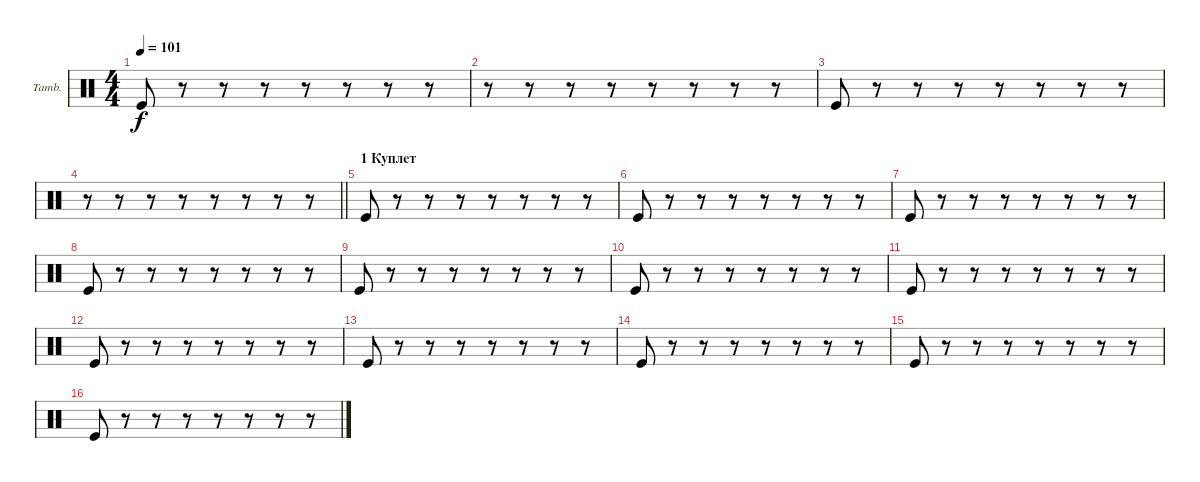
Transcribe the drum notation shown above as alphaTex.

\bracketExtendMode groupsimilarinstruments
\firstSystemTrackNameOrientation horizontal
\otherSystemsTrackNameOrientation horizontal
\track ("Tambourine" "Tamb.") {instrument percussion}
\staff {score}
\articulation defaults
\ts (4 4)
\tempo 101
\clef neutral
\ks c "Kick (hit)".8{dy f}
r.8 r.8 r.8 r.8 r.8 r.8 r.8 |
r.8 r.8 r.8 r.8 r.8 r.8 r.8 r.8 |
"Kick (hit)".8 r.8 r.8 r.8 r.8 r.8 r.8 r.8 |
\barLineRight lightlight
r.8 r.8 r.8 r.8 r.8 r.8 r.8 r.8 |
\section ("" "1 Куплет")
"Kick (hit)".8 r.8 r.8 r.8 r.8 r.8 r.8 r.8 |
"Kick (hit)".8 r.8 r.8 r.8 r.8 r.8 r.8 r.8 |
"Kick (hit)".8 r.8 r.8 r.8 r.8 r.8 r.8 r.8 |
"Kick (hit)".8 r.8 r.8 r.8 r.8 r.8 r.8 r.8 |
"Kick (hit)".8 r.8 r.8 r.8 r.8 r.8 r.8 r.8 |
"Kick (hit)".8 r.8 r.8 r.8 r.8 r.8 r.8 r.8 |
"Kick (hit)".8 r.8 r.8 r.8 r.8 r.8 r.8 r.8 |
"Kick (hit)".8 r.8 r.8 r.8 r.8 r.8 r.8 r.8 |
"Kick (hit)".8 r.8 r.8 r.8 r.8 r.8 r.8 r.8 |
"Kick (hit)".8 r.8 r.8 r.8 r.8 r.8 r.8 r.8 |
"Kick (hit)".8 r.8 r.8 r.8 r.8 r.8 r.8 r.8 |
"Kick (hit)".8 r.8 r.8 r.8 r.8 r.8 r.8 r.8
